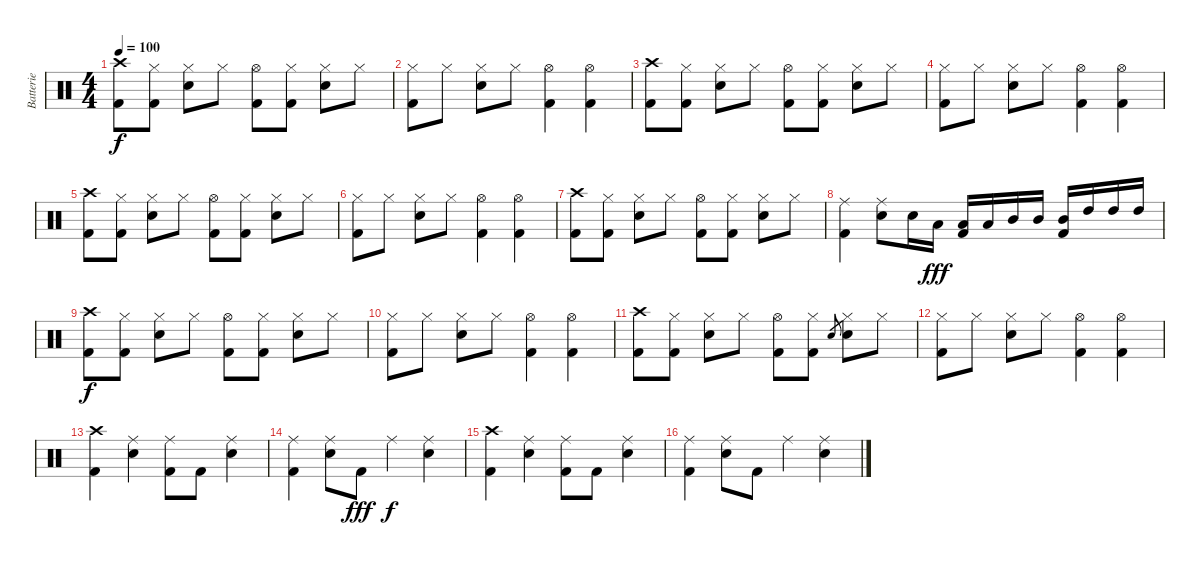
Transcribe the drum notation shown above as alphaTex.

\track ("Batterie" "Batterie") {instrument percussion}
\staff {score}
\articulation defaults
\ts (4 4)
\tempo 100
\clef neutral
\ks c
("Crash high (hit)" "Kick (hit) 2").8{dy f} ("Hi-Hat (closed)" "Kick (hit) 2").8 ("Hi-Hat (closed)" "Electric Snare (hit)").8 "Hi-Hat (closed)".8 ("Hi-Hat (open)" "Kick (hit) 2").8 ("Hi-Hat (closed)" "Kick (hit) 2").8 ("Hi-Hat (closed)" "Electric Snare (hit)").8 "Hi-Hat (closed)".8 |
("Hi-Hat (closed)" "Kick (hit) 2").8 "Hi-Hat (closed)".8 ("Hi-Hat (closed)" "Electric Snare (hit)").8 "Hi-Hat (closed)".8 ("Hi-Hat (open)" "Kick (hit) 2").4 ("Hi-Hat (open)" "Kick (hit) 2").4 |
("Crash high (hit)" "Kick (hit) 2").8 ("Hi-Hat (closed)" "Kick (hit) 2").8 ("Hi-Hat (closed)" "Electric Snare (hit)").8 "Hi-Hat (closed)".8 ("Hi-Hat (open)" "Kick (hit) 2").8 ("Hi-Hat (closed)" "Kick (hit) 2").8 ("Hi-Hat (closed)" "Electric Snare (hit)").8 "Hi-Hat (closed)".8 |
("Hi-Hat (closed)" "Kick (hit) 2").8 "Hi-Hat (closed)".8 ("Hi-Hat (closed)" "Electric Snare (hit)").8 "Hi-Hat (closed)".8 ("Hi-Hat (open)" "Kick (hit) 2").4 ("Hi-Hat (open)" "Kick (hit) 2").4 |
("Crash high (hit)" "Kick (hit) 2").8 ("Hi-Hat (closed)" "Kick (hit) 2").8 ("Hi-Hat (closed)" "Electric Snare (hit)").8 "Hi-Hat (closed)".8 ("Hi-Hat (open)" "Kick (hit) 2").8 ("Hi-Hat (closed)" "Kick (hit) 2").8 ("Hi-Hat (closed)" "Electric Snare (hit)").8 "Hi-Hat (closed)".8 |
("Hi-Hat (closed)" "Kick (hit) 2").8 "Hi-Hat (closed)".8 ("Hi-Hat (closed)" "Electric Snare (hit)").8 "Hi-Hat (closed)".8 ("Hi-Hat (open)" "Kick (hit) 2").4 ("Hi-Hat (open)" "Kick (hit) 2").4 |
("Crash high (hit)" "Kick (hit) 2").8 ("Hi-Hat (closed)" "Kick (hit) 2").8 ("Hi-Hat (closed)" "Electric Snare (hit)").8 "Hi-Hat (closed)".8 ("Hi-Hat (open)" "Kick (hit) 2").8 ("Hi-Hat (closed)" "Kick (hit) 2").8 ("Hi-Hat (closed)" "Electric Snare (hit)").8 "Hi-Hat (closed)".8 |
("Ride (middle)" "Kick (hit) 2").4 ("Ride (middle)" "Electric Snare (hit)").8 "Electric Snare (hit)".16 "Low Tom (hit)".16{dy fff} ("Low Tom (hit)" "Kick (hit) 2").16 "Low Tom (hit)".16 "Mid Tom (hit)".16 "Mid Tom (hit)".16 ("Mid Tom (hit)" "Kick (hit) 2").16 "High Tom (hit)".16 "High Tom (hit)".16 "High Tom (hit)".16 |
("Crash high (hit)" "Kick (hit) 2").8{dy f} ("Hi-Hat (closed)" "Kick (hit) 2").8 ("Hi-Hat (closed)" "Electric Snare (hit)").8 "Hi-Hat (closed)".8 ("Hi-Hat (open)" "Kick (hit) 2").8 ("Hi-Hat (closed)" "Kick (hit) 2").8 ("Hi-Hat (closed)" "Electric Snare (hit)").8 "Hi-Hat (closed)".8 |
("Hi-Hat (closed)" "Kick (hit) 2").8 "Hi-Hat (closed)".8 ("Hi-Hat (closed)" "Electric Snare (hit)").8 "Hi-Hat (closed)".8 ("Hi-Hat (open)" "Kick (hit) 2").4 ("Hi-Hat (open)" "Kick (hit) 2").4 |
("Crash high (hit)" "Kick (hit) 2").8 ("Hi-Hat (closed)" "Kick (hit) 2").8 ("Hi-Hat (closed)" "Electric Snare (hit)").8 "Hi-Hat (closed)".8 ("Hi-Hat (open)" "Kick (hit) 2").8 ("Hi-Hat (closed)" "Kick (hit) 2").8 "Electric Snare (hit)".8{gr} ("Hi-Hat (closed)" "Electric Snare (hit)").8 "Hi-Hat (closed)".8 |
("Hi-Hat (closed)" "Kick (hit) 2").8 "Hi-Hat (closed)".8 ("Hi-Hat (closed)" "Electric Snare (hit)").8 "Hi-Hat (closed)".8 ("Hi-Hat (open)" "Kick (hit) 2").4 ("Hi-Hat (open)" "Kick (hit) 2").4 |
("Crash high (hit)" "Kick (hit) 2").4 ("Ride (middle)" "Electric Snare (hit)").4 ("Ride (middle)" "Kick (hit) 2").8 "Kick (hit) 2".8 ("Ride (middle)" "Electric Snare (hit)").4 |
("Ride (middle)" "Kick (hit) 2").4 ("Ride (middle)" "Electric Snare (hit)").8 "Kick (hit) 2".8{dy fff} "Ride (middle)".4{dy f} ("Ride (middle)" "Electric Snare (hit)").4 |
("Crash high (hit)" "Kick (hit) 2").4 ("Ride (middle)" "Electric Snare (hit)").4 ("Ride (middle)" "Kick (hit) 2").8 "Kick (hit) 2".8 ("Ride (middle)" "Electric Snare (hit)").4 |
("Ride (middle)" "Kick (hit) 2").4 ("Ride (middle)" "Electric Snare (hit)").8 "Kick (hit) 2".8 "Ride (middle)".4 ("Ride (middle)" "Electric Snare (hit)").4
